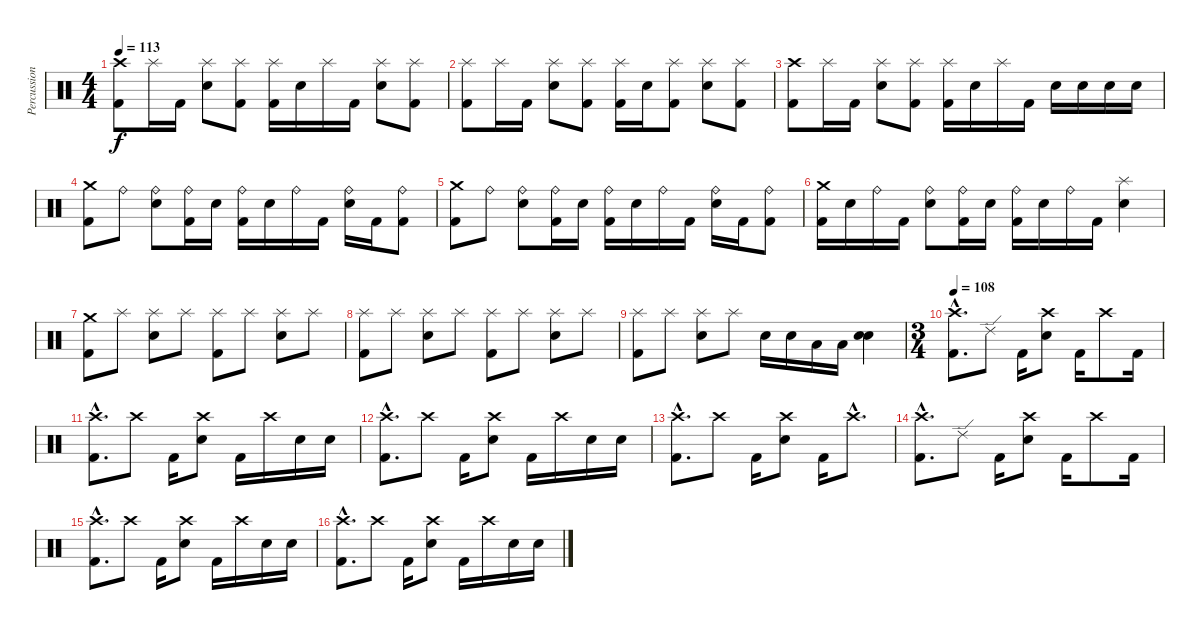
\track ("Percussion" "Percussion") {instrument percussion}
\staff {score}
\articulation defaults
\ts (4 4)
\tempo 113
\clef neutral
\ks c
("Crash high (hit)" "Kick (hit) 2").8{dy f} "Splash (hit)".16 "Kick (hit) 2".16 ("Splash (hit)" "Electric Snare (hit)").8 ("Splash (hit)" "Kick (hit) 2").8 ("Splash (hit)" "Kick (hit) 2").16 "Electric Snare (hit)".16 "Splash (hit)".16 "Kick (hit) 2".16 ("Splash (hit)" "Electric Snare (hit)").8 ("Splash (hit)" "Kick (hit) 2").8 |
("Splash (hit)" "Kick (hit) 2").8 "Splash (hit)".16 "Kick (hit) 2".16 ("Splash (hit)" "Electric Snare (hit)").8 ("Splash (hit)" "Kick (hit) 2").8 ("Splash (hit)" "Kick (hit) 2").16 "Electric Snare (hit)".16 ("Splash (hit)" "Kick (hit) 2").8 ("Splash (hit)" "Electric Snare (hit)").8 ("Splash (hit)" "Kick (hit) 2").8 |
("Crash high (hit)" "Kick (hit) 2").8 "Splash (hit)".16 "Kick (hit) 2".16 ("Splash (hit)" "Electric Snare (hit)").8 ("Splash (hit)" "Kick (hit) 2").8 ("Splash (hit)" "Kick (hit) 2").16 "Electric Snare (hit)".16 "Splash (hit)".16 "Kick (hit) 2".16 "Electric Snare (hit)".16 "Electric Snare (hit)".16 "Electric Snare (hit)".16 "Electric Snare (hit)".16 |
("Crash medium (hit)" "Kick (hit) 2").8 "Ride (bell)".8 ("Ride (bell)" "Electric Snare (hit)").8 ("Ride (bell)" "Kick (hit) 2").16 "Electric Snare (hit)".16 ("Ride (bell)" "Kick (hit) 2").16 "Electric Snare (hit)".16 "Ride (bell)".16 "Kick (hit) 2".16 ("Ride (bell)" "Electric Snare (hit)").16 "Kick (hit) 2".16 ("Ride (bell)" "Kick (hit) 2").8 |
("Crash medium (hit)" "Kick (hit) 2").8 "Ride (bell)".8 ("Ride (bell)" "Electric Snare (hit)").8 ("Ride (bell)" "Kick (hit) 2").16 "Electric Snare (hit)".16 ("Ride (bell)" "Kick (hit) 2").16 "Electric Snare (hit)".16 "Ride (bell)".16 "Kick (hit) 2".16 ("Ride (bell)" "Electric Snare (hit)").16 "Kick (hit) 2".16 ("Ride (bell)" "Kick (hit) 2").8 |
("Crash medium (hit)" "Kick (hit) 2").16 "Electric Snare (hit)".16 "Ride (bell)".16 "Kick (hit) 2".16 ("Ride (bell)" "Electric Snare (hit)").8 ("Ride (bell)" "Kick (hit) 2").16 "Electric Snare (hit)".16 ("Ride (bell)" "Kick (hit) 2").16 "Electric Snare (hit)".16 "Ride (bell)".16 "Kick (hit) 2".16 ("Splash (hit)" "Electric Snare (hit)").4 |
("Crash medium (hit)" "Kick (hit) 2").8 "Splash (hit)".8 ("Splash (hit)" "Electric Snare (hit)").8 "Splash (hit)".8 ("Splash (hit)" "Kick (hit) 2").8 "Splash (hit)".8 ("Splash (hit)" "Electric Snare (hit)").8 "Splash (hit)".8 |
("Splash (hit)" "Kick (hit) 2").8 "Splash (hit)".8 ("Splash (hit)" "Electric Snare (hit)").8 "Splash (hit)".8 ("Splash (hit)" "Kick (hit) 2").8 "Splash (hit)".8 ("Splash (hit)" "Electric Snare (hit)").8 "Splash (hit)".8 |
("Splash (hit)" "Kick (hit) 2").8 "Splash (hit)".8 ("Splash (hit)" "Electric Snare (hit)").8 "Splash (hit)".8 "Electric Snare (hit)".16 "Electric Snare (hit)".16 "Low Floor Tom (hit)".16 "Low Floor Tom (hit)".16 ("Electric Snare (hit)" "Electric Snare (hit)").4 |
\ts (3 4)
\tempo 108
("Crash high (hit)"{hac} "Kick (hit) 2"{hac}).8{d} "Ride (edge) 2".8 "Kick (hit) 2".16 ("Crash high (hit)" "Electric Snare (hit)").8 "Kick (hit) 2".16 "Crash high (hit)".8 "Kick (hit) 2".16 |
("Crash high (hit)"{hac} "Kick (hit) 2"{hac}).8{d} "Crash high (hit)".8 "Kick (hit) 2".16 ("Crash high (hit)" "Electric Snare (hit)").8 "Kick (hit) 2".16 "Crash high (hit)".16 "Electric Snare (hit)".16 "Electric Snare (hit)".16 |
("Crash high (hit)"{hac} "Kick (hit) 2"{hac}).8{d} "Crash high (hit)".8 "Kick (hit) 2".16 ("Crash high (hit)" "Electric Snare (hit)").8 "Kick (hit) 2".16 "Crash high (hit)".16 "Electric Snare (hit)".16 "Electric Snare (hit)".16 |
("Crash high (hit)"{hac} "Kick (hit) 2"{hac}).8{d} "Crash high (hit)".8 "Kick (hit) 2".16 ("Crash high (hit)" "Electric Snare (hit)").8 "Kick (hit) 2".16 "Crash high (hit)"{hac}.8{d} |
("Crash high (hit)"{hac} "Kick (hit) 2"{hac}).8{d} "Ride (edge) 2".8 "Kick (hit) 2".16 ("Crash high (hit)" "Electric Snare (hit)").8 "Kick (hit) 2".16 "Crash high (hit)".8 "Kick (hit) 2".16 |
("Crash high (hit)"{hac} "Kick (hit) 2"{hac}).8{d} "Crash high (hit)".8 "Kick (hit) 2".16 ("Crash high (hit)" "Electric Snare (hit)").8 "Kick (hit) 2".16 "Crash high (hit)".16 "Electric Snare (hit)".16 "Electric Snare (hit)".16 |
("Crash high (hit)"{hac} "Kick (hit) 2"{hac}).8{d} "Crash high (hit)".8 "Kick (hit) 2".16 ("Crash high (hit)" "Electric Snare (hit)").8 "Kick (hit) 2".16 "Crash high (hit)".16 "Electric Snare (hit)".16 "Electric Snare (hit)".16
